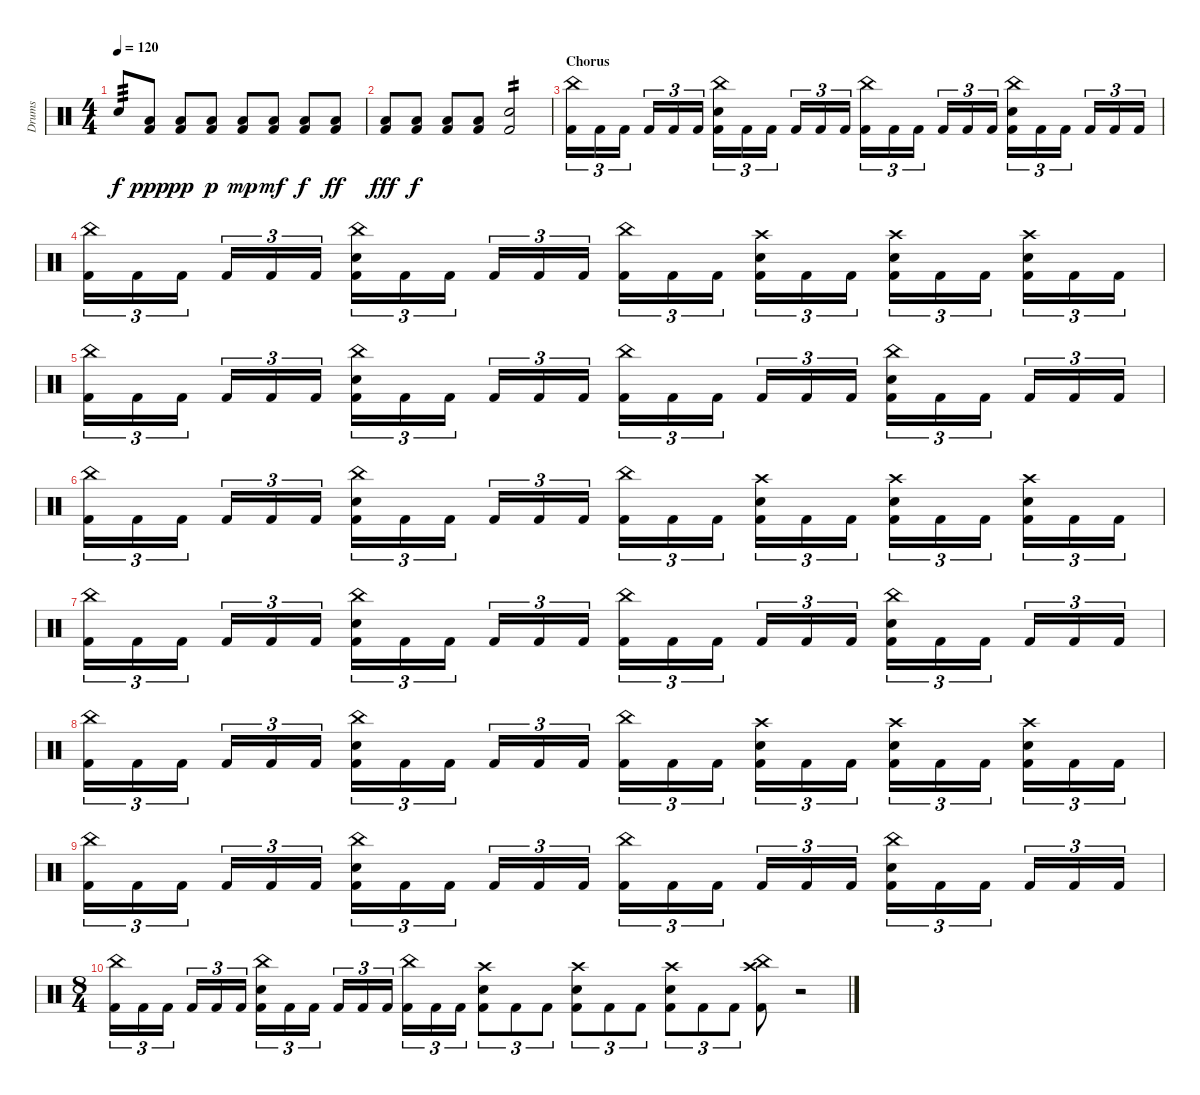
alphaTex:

\track ("Drums" "Drums") {instrument percussion}
\staff {score}
\articulation defaults
\ts (4 4)
\tempo 120
\clef neutral
\ks c "Electric Snare (hit)".8{tp 3 dy f}
("Low Floor Tom (hit)" "Kick (hit) 2").8{dy ppp} ("Low Floor Tom (hit)" "Kick (hit) 2").8{dy pp} ("Low Floor Tom (hit)" "Kick (hit) 2").8{dy p} ("Low Floor Tom (hit)" "Kick (hit) 2").8{dy mp} ("Low Floor Tom (hit)" "Kick (hit) 2").8{dy mf} ("Low Floor Tom (hit)" "Kick (hit) 2").8{dy f} ("Low Floor Tom (hit)" "Kick (hit) 2").8{dy ff} |
("Low Floor Tom (hit)" "Kick (hit) 2").8{dy fff} ("Low Floor Tom (hit)" "Kick (hit) 2").8{dy f} ("Low Floor Tom (hit)" "Kick (hit) 2").8 ("Low Floor Tom (hit)" "Kick (hit) 2").8 ("Electric Snare (hit)" "Kick (hit) 2").2{tp 2} |
\section ("" "Chorus")
("China (hit)" "Kick (hit) 2").16{tu (3 2)} "Kick (hit) 2".16{tu (3 2)} "Kick (hit) 2".16{tu (3 2)} "Kick (hit) 2".16{tu (3 2)} "Kick (hit) 2".16{tu (3 2)} "Kick (hit) 2".16{tu (3 2)} ("China (hit)" "Electric Snare (hit)" "Kick (hit) 2").16{tu (3 2)} "Kick (hit) 2".16{tu (3 2)} "Kick (hit) 2".16{tu (3 2)} "Kick (hit) 2".16{tu (3 2)} "Kick (hit) 2".16{tu (3 2)} "Kick (hit) 2".16{tu (3 2)} ("China (hit)" "Kick (hit) 2").16{tu (3 2)} "Kick (hit) 2".16{tu (3 2)} "Kick (hit) 2".16{tu (3 2)} "Kick (hit) 2".16{tu (3 2)} "Kick (hit) 2".16{tu (3 2)} "Kick (hit) 2".16{tu (3 2)} ("China (hit)" "Electric Snare (hit)" "Kick (hit) 2").16{tu (3 2)} "Kick (hit) 2".16{tu (3 2)} "Kick (hit) 2".16{tu (3 2)} "Kick (hit) 2".16{tu (3 2)} "Kick (hit) 2".16{tu (3 2)} "Kick (hit) 2".16{tu (3 2)} |
("China (hit)" "Kick (hit) 2").16{tu (3 2)} "Kick (hit) 2".16{tu (3 2)} "Kick (hit) 2".16{tu (3 2)} "Kick (hit) 2".16{tu (3 2)} "Kick (hit) 2".16{tu (3 2)} "Kick (hit) 2".16{tu (3 2)} ("China (hit)" "Electric Snare (hit)" "Kick (hit) 2").16{tu (3 2)} "Kick (hit) 2".16{tu (3 2)} "Kick (hit) 2".16{tu (3 2)} "Kick (hit) 2".16{tu (3 2)} "Kick (hit) 2".16{tu (3 2)} "Kick (hit) 2".16{tu (3 2)} ("China (hit)" "Kick (hit) 2").16{tu (3 2)} "Kick (hit) 2".16{tu (3 2)} "Kick (hit) 2".16{tu (3 2)} ("Crash high (hit)" "Electric Snare (hit)" "Kick (hit) 2").16{tu (3 2)} "Kick (hit) 2".16{tu (3 2)} "Kick (hit) 2".16{tu (3 2)} ("Crash high (hit)" "Electric Snare (hit)" "Kick (hit) 2").16{tu (3 2)} "Kick (hit) 2".16{tu (3 2)} "Kick (hit) 2".16{tu (3 2)} ("Crash high (hit)" "Electric Snare (hit)" "Kick (hit) 2").16{tu (3 2)} "Kick (hit) 2".16{tu (3 2)} "Kick (hit) 2".16{tu (3 2)} |
("China (hit)" "Kick (hit) 2").16{tu (3 2)} "Kick (hit) 2".16{tu (3 2)} "Kick (hit) 2".16{tu (3 2)} "Kick (hit) 2".16{tu (3 2)} "Kick (hit) 2".16{tu (3 2)} "Kick (hit) 2".16{tu (3 2)} ("China (hit)" "Electric Snare (hit)" "Kick (hit) 2").16{tu (3 2)} "Kick (hit) 2".16{tu (3 2)} "Kick (hit) 2".16{tu (3 2)} "Kick (hit) 2".16{tu (3 2)} "Kick (hit) 2".16{tu (3 2)} "Kick (hit) 2".16{tu (3 2)} ("China (hit)" "Kick (hit) 2").16{tu (3 2)} "Kick (hit) 2".16{tu (3 2)} "Kick (hit) 2".16{tu (3 2)} "Kick (hit) 2".16{tu (3 2)} "Kick (hit) 2".16{tu (3 2)} "Kick (hit) 2".16{tu (3 2)} ("China (hit)" "Electric Snare (hit)" "Kick (hit) 2").16{tu (3 2)} "Kick (hit) 2".16{tu (3 2)} "Kick (hit) 2".16{tu (3 2)} "Kick (hit) 2".16{tu (3 2)} "Kick (hit) 2".16{tu (3 2)} "Kick (hit) 2".16{tu (3 2)} |
("China (hit)" "Kick (hit) 2").16{tu (3 2)} "Kick (hit) 2".16{tu (3 2)} "Kick (hit) 2".16{tu (3 2)} "Kick (hit) 2".16{tu (3 2)} "Kick (hit) 2".16{tu (3 2)} "Kick (hit) 2".16{tu (3 2)} ("China (hit)" "Electric Snare (hit)" "Kick (hit) 2").16{tu (3 2)} "Kick (hit) 2".16{tu (3 2)} "Kick (hit) 2".16{tu (3 2)} "Kick (hit) 2".16{tu (3 2)} "Kick (hit) 2".16{tu (3 2)} "Kick (hit) 2".16{tu (3 2)} ("China (hit)" "Kick (hit) 2").16{tu (3 2)} "Kick (hit) 2".16{tu (3 2)} "Kick (hit) 2".16{tu (3 2)} ("Crash high (hit)" "Electric Snare (hit)" "Kick (hit) 2").16{tu (3 2)} "Kick (hit) 2".16{tu (3 2)} "Kick (hit) 2".16{tu (3 2)} ("Crash high (hit)" "Electric Snare (hit)" "Kick (hit) 2").16{tu (3 2)} "Kick (hit) 2".16{tu (3 2)} "Kick (hit) 2".16{tu (3 2)} ("Crash high (hit)" "Electric Snare (hit)" "Kick (hit) 2").16{tu (3 2)} "Kick (hit) 2".16{tu (3 2)} "Kick (hit) 2".16{tu (3 2)} |
("China (hit)" "Kick (hit) 2").16{tu (3 2)} "Kick (hit) 2".16{tu (3 2)} "Kick (hit) 2".16{tu (3 2)} "Kick (hit) 2".16{tu (3 2)} "Kick (hit) 2".16{tu (3 2)} "Kick (hit) 2".16{tu (3 2)} ("China (hit)" "Electric Snare (hit)" "Kick (hit) 2").16{tu (3 2)} "Kick (hit) 2".16{tu (3 2)} "Kick (hit) 2".16{tu (3 2)} "Kick (hit) 2".16{tu (3 2)} "Kick (hit) 2".16{tu (3 2)} "Kick (hit) 2".16{tu (3 2)} ("China (hit)" "Kick (hit) 2").16{tu (3 2)} "Kick (hit) 2".16{tu (3 2)} "Kick (hit) 2".16{tu (3 2)} "Kick (hit) 2".16{tu (3 2)} "Kick (hit) 2".16{tu (3 2)} "Kick (hit) 2".16{tu (3 2)} ("China (hit)" "Electric Snare (hit)" "Kick (hit) 2").16{tu (3 2)} "Kick (hit) 2".16{tu (3 2)} "Kick (hit) 2".16{tu (3 2)} "Kick (hit) 2".16{tu (3 2)} "Kick (hit) 2".16{tu (3 2)} "Kick (hit) 2".16{tu (3 2)} |
("China (hit)" "Kick (hit) 2").16{tu (3 2)} "Kick (hit) 2".16{tu (3 2)} "Kick (hit) 2".16{tu (3 2)} "Kick (hit) 2".16{tu (3 2)} "Kick (hit) 2".16{tu (3 2)} "Kick (hit) 2".16{tu (3 2)} ("China (hit)" "Electric Snare (hit)" "Kick (hit) 2").16{tu (3 2)} "Kick (hit) 2".16{tu (3 2)} "Kick (hit) 2".16{tu (3 2)} "Kick (hit) 2".16{tu (3 2)} "Kick (hit) 2".16{tu (3 2)} "Kick (hit) 2".16{tu (3 2)} ("China (hit)" "Kick (hit) 2").16{tu (3 2)} "Kick (hit) 2".16{tu (3 2)} "Kick (hit) 2".16{tu (3 2)} ("Crash high (hit)" "Electric Snare (hit)" "Kick (hit) 2").16{tu (3 2)} "Kick (hit) 2".16{tu (3 2)} "Kick (hit) 2".16{tu (3 2)} ("Crash high (hit)" "Electric Snare (hit)" "Kick (hit) 2").16{tu (3 2)} "Kick (hit) 2".16{tu (3 2)} "Kick (hit) 2".16{tu (3 2)} ("Crash high (hit)" "Electric Snare (hit)" "Kick (hit) 2").16{tu (3 2)} "Kick (hit) 2".16{tu (3 2)} "Kick (hit) 2".16{tu (3 2)} |
("China (hit)" "Kick (hit) 2").16{tu (3 2)} "Kick (hit) 2".16{tu (3 2)} "Kick (hit) 2".16{tu (3 2)} "Kick (hit) 2".16{tu (3 2)} "Kick (hit) 2".16{tu (3 2)} "Kick (hit) 2".16{tu (3 2)} ("China (hit)" "Electric Snare (hit)" "Kick (hit) 2").16{tu (3 2)} "Kick (hit) 2".16{tu (3 2)} "Kick (hit) 2".16{tu (3 2)} "Kick (hit) 2".16{tu (3 2)} "Kick (hit) 2".16{tu (3 2)} "Kick (hit) 2".16{tu (3 2)} ("China (hit)" "Kick (hit) 2").16{tu (3 2)} "Kick (hit) 2".16{tu (3 2)} "Kick (hit) 2".16{tu (3 2)} "Kick (hit) 2".16{tu (3 2)} "Kick (hit) 2".16{tu (3 2)} "Kick (hit) 2".16{tu (3 2)} ("China (hit)" "Electric Snare (hit)" "Kick (hit) 2").16{tu (3 2)} "Kick (hit) 2".16{tu (3 2)} "Kick (hit) 2".16{tu (3 2)} "Kick (hit) 2".16{tu (3 2)} "Kick (hit) 2".16{tu (3 2)} "Kick (hit) 2".16{tu (3 2)} |
\ts (8 4)
("China (hit)" "Kick (hit) 2").16{tu (3 2)} "Kick (hit) 2".16{tu (3 2)} "Kick (hit) 2".16{tu (3 2)} "Kick (hit) 2".16{tu (3 2)} "Kick (hit) 2".16{tu (3 2)} "Kick (hit) 2".16{tu (3 2)} ("China (hit)" "Electric Snare (hit)" "Kick (hit) 2").16{tu (3 2)} "Kick (hit) 2".16{tu (3 2)} "Kick (hit) 2".16{tu (3 2)} "Kick (hit) 2".16{tu (3 2)} "Kick (hit) 2".16{tu (3 2)} "Kick (hit) 2".16{tu (3 2)} ("China (hit)" "Kick (hit) 2").16{tu (3 2)} "Kick (hit) 2".16{tu (3 2)} "Kick (hit) 2".16{tu (3 2)} ("Crash high (hit)" "Electric Snare (hit)" "Kick (hit) 2").8{tu (3 2)} "Kick (hit) 2".8{tu (3 2)} "Kick (hit) 2".8{tu (3 2)} ("Crash high (hit)" "Electric Snare (hit)" "Kick (hit) 2").8{tu (3 2)} "Kick (hit) 2".8{tu (3 2)} "Kick (hit) 2".8{tu (3 2)} ("Crash high (hit)" "Electric Snare (hit)" "Kick (hit) 2").8{tu (3 2)} "Kick (hit) 2".8{tu (3 2)} "Kick (hit) 2".8{tu (3 2)} ("Crash high (hit)" "China (hit)" "Kick (hit) 2").8 r.2
